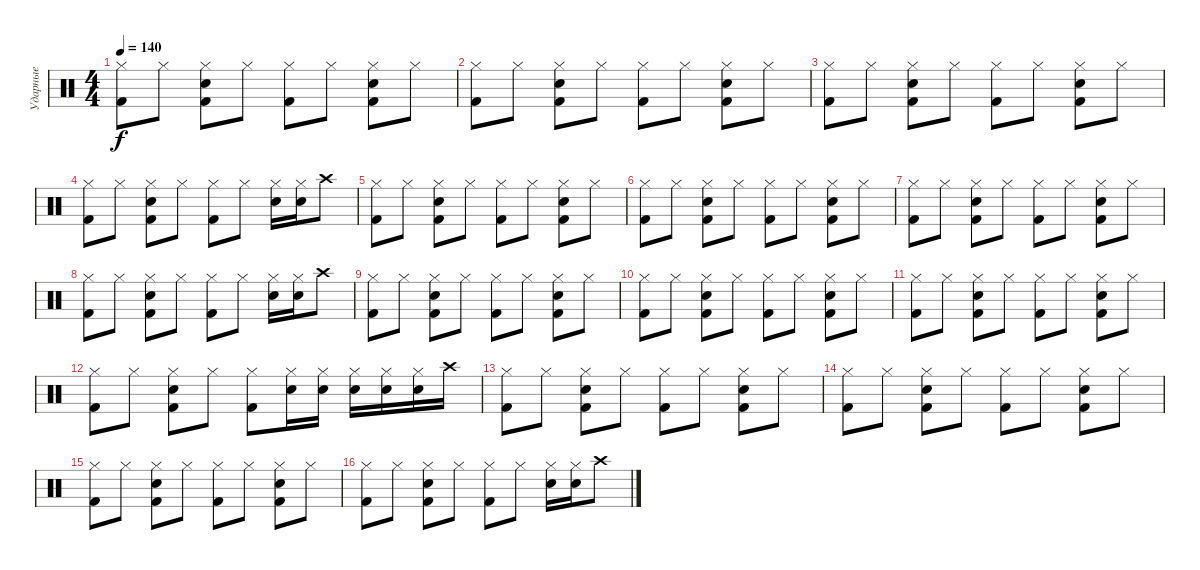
\track ("Ударные" "Ударные") {instrument percussion}
\staff {score}
\articulation defaults
\ts (4 4)
\tempo 140
\clef neutral
\ks c
("Hi-Hat (closed)" "Kick (hit) 2").8{dy f} "Hi-Hat (closed)".8 ("Hi-Hat (closed)" "Kick (hit) 2" "Snare (hit) 2").8 "Hi-Hat (closed)".8 ("Hi-Hat (closed)" "Kick (hit) 2").8 "Hi-Hat (closed)".8 ("Hi-Hat (closed)" "Kick (hit) 2" "Snare (hit) 2").8 "Hi-Hat (closed)".8 |
("Hi-Hat (closed)" "Kick (hit) 2").8 "Hi-Hat (closed)".8 ("Hi-Hat (closed)" "Kick (hit) 2" "Snare (hit) 2").8 "Hi-Hat (closed)".8 ("Hi-Hat (closed)" "Kick (hit) 2").8 "Hi-Hat (closed)".8 ("Hi-Hat (closed)" "Kick (hit) 2" "Snare (hit) 2").8 "Hi-Hat (closed)".8 |
("Hi-Hat (closed)" "Kick (hit) 2").8 "Hi-Hat (closed)".8 ("Hi-Hat (closed)" "Kick (hit) 2" "Snare (hit) 2").8 "Hi-Hat (closed)".8 ("Hi-Hat (closed)" "Kick (hit) 2").8 "Hi-Hat (closed)".8 ("Hi-Hat (closed)" "Kick (hit) 2" "Snare (hit) 2").8 "Hi-Hat (closed)".8 |
("Hi-Hat (closed)" "Kick (hit) 2").8 "Hi-Hat (closed)".8 ("Hi-Hat (closed)" "Kick (hit) 2" "Snare (hit) 2").8 "Hi-Hat (closed)".8 ("Hi-Hat (closed)" "Kick (hit) 2").8 "Hi-Hat (closed)".8 ("Hi-Hat (closed)" "Snare (hit) 2").16 ("Hi-Hat (closed)" "Snare (hit) 2").16 "Crash high (hit)".8 |
("Hi-Hat (closed)" "Kick (hit) 2").8 "Hi-Hat (closed)".8 ("Hi-Hat (closed)" "Kick (hit) 2" "Snare (hit) 2").8 "Hi-Hat (closed)".8 ("Hi-Hat (closed)" "Kick (hit) 2").8 "Hi-Hat (closed)".8 ("Hi-Hat (closed)" "Kick (hit) 2" "Snare (hit) 2").8 "Hi-Hat (closed)".8 |
("Hi-Hat (closed)" "Kick (hit) 2").8 "Hi-Hat (closed)".8 ("Hi-Hat (closed)" "Kick (hit) 2" "Snare (hit) 2").8 "Hi-Hat (closed)".8 ("Hi-Hat (closed)" "Kick (hit) 2").8 "Hi-Hat (closed)".8 ("Hi-Hat (closed)" "Kick (hit) 2" "Snare (hit) 2").8 "Hi-Hat (closed)".8 |
("Hi-Hat (closed)" "Kick (hit) 2").8 "Hi-Hat (closed)".8 ("Hi-Hat (closed)" "Kick (hit) 2" "Snare (hit) 2").8 "Hi-Hat (closed)".8 ("Hi-Hat (closed)" "Kick (hit) 2").8 "Hi-Hat (closed)".8 ("Hi-Hat (closed)" "Kick (hit) 2" "Snare (hit) 2").8 "Hi-Hat (closed)".8 |
("Hi-Hat (closed)" "Kick (hit) 2").8 "Hi-Hat (closed)".8 ("Hi-Hat (closed)" "Kick (hit) 2" "Snare (hit) 2").8 "Hi-Hat (closed)".8 ("Hi-Hat (closed)" "Kick (hit) 2").8 "Hi-Hat (closed)".8 ("Hi-Hat (closed)" "Snare (hit) 2").16 ("Hi-Hat (closed)" "Snare (hit) 2").16 "Crash high (hit)".8 |
("Hi-Hat (closed)" "Kick (hit) 2").8 "Hi-Hat (closed)".8 ("Hi-Hat (closed)" "Kick (hit) 2" "Snare (hit) 2").8 "Hi-Hat (closed)".8 ("Hi-Hat (closed)" "Kick (hit) 2").8 "Hi-Hat (closed)".8 ("Hi-Hat (closed)" "Kick (hit) 2" "Snare (hit) 2").8 "Hi-Hat (closed)".8 |
("Hi-Hat (closed)" "Kick (hit) 2").8 "Hi-Hat (closed)".8 ("Hi-Hat (closed)" "Kick (hit) 2" "Snare (hit) 2").8 "Hi-Hat (closed)".8 ("Hi-Hat (closed)" "Kick (hit) 2").8 "Hi-Hat (closed)".8 ("Hi-Hat (closed)" "Kick (hit) 2" "Snare (hit) 2").8 "Hi-Hat (closed)".8 |
("Hi-Hat (closed)" "Kick (hit) 2").8 "Hi-Hat (closed)".8 ("Hi-Hat (closed)" "Kick (hit) 2" "Snare (hit) 2").8 "Hi-Hat (closed)".8 ("Hi-Hat (closed)" "Kick (hit) 2").8 "Hi-Hat (closed)".8 ("Hi-Hat (closed)" "Kick (hit) 2" "Snare (hit) 2").8 "Hi-Hat (closed)".8 |
("Hi-Hat (closed)" "Kick (hit) 2").8 "Hi-Hat (closed)".8 ("Hi-Hat (closed)" "Kick (hit) 2" "Snare (hit) 2").8 "Hi-Hat (closed)".8 ("Hi-Hat (closed)" "Kick (hit) 2").8 ("Hi-Hat (closed)" "Snare (hit) 2").16 ("Hi-Hat (closed)" "Snare (hit) 2").16 ("Hi-Hat (closed)" "Snare (hit) 2").16 ("Hi-Hat (closed)" "Snare (hit) 2").16 ("Hi-Hat (closed)" "Snare (hit) 2").16 "Crash high (hit)".16 |
("Hi-Hat (closed)" "Kick (hit) 2").8 "Hi-Hat (closed)".8 ("Hi-Hat (closed)" "Kick (hit) 2" "Snare (hit) 2").8 "Hi-Hat (closed)".8 ("Hi-Hat (closed)" "Kick (hit) 2").8 "Hi-Hat (closed)".8 ("Hi-Hat (closed)" "Kick (hit) 2" "Snare (hit) 2").8 "Hi-Hat (closed)".8 |
("Hi-Hat (closed)" "Kick (hit) 2").8 "Hi-Hat (closed)".8 ("Hi-Hat (closed)" "Kick (hit) 2" "Snare (hit) 2").8 "Hi-Hat (closed)".8 ("Hi-Hat (closed)" "Kick (hit) 2").8 "Hi-Hat (closed)".8 ("Hi-Hat (closed)" "Kick (hit) 2" "Snare (hit) 2").8 "Hi-Hat (closed)".8 |
("Hi-Hat (closed)" "Kick (hit) 2").8 "Hi-Hat (closed)".8 ("Hi-Hat (closed)" "Kick (hit) 2" "Snare (hit) 2").8 "Hi-Hat (closed)".8 ("Hi-Hat (closed)" "Kick (hit) 2").8 "Hi-Hat (closed)".8 ("Hi-Hat (closed)" "Kick (hit) 2" "Snare (hit) 2").8 "Hi-Hat (closed)".8 |
("Hi-Hat (closed)" "Kick (hit) 2").8 "Hi-Hat (closed)".8 ("Hi-Hat (closed)" "Kick (hit) 2" "Snare (hit) 2").8 "Hi-Hat (closed)".8 ("Hi-Hat (closed)" "Kick (hit) 2").8 "Hi-Hat (closed)".8 ("Hi-Hat (closed)" "Snare (hit) 2").16 ("Hi-Hat (closed)" "Snare (hit) 2").16 "Crash high (hit)".8
